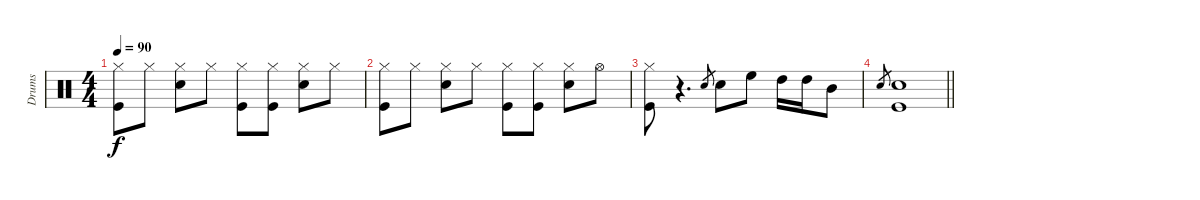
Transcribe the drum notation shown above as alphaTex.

\track ("Drums" "Drums") {instrument percussion}
\staff {score}
\articulation defaults
\ts (4 4)
\tempo 90
\clef neutral
\ks c
("Kick (hit)" "Hi-Hat (closed)").8{dy f} "Hi-Hat (closed)".8 ("Snare (hit) 2" "Hi-Hat (closed)").8 "Hi-Hat (closed)".8 ("Kick (hit)" "Hi-Hat (closed)").8 ("Kick (hit)" "Hi-Hat (closed)").8 ("Snare (hit) 2" "Hi-Hat (closed)").8 "Hi-Hat (closed)".8 |
("Kick (hit)" "Hi-Hat (closed)").8 "Hi-Hat (closed)".8 ("Snare (hit) 2" "Hi-Hat (closed)").8 "Hi-Hat (closed)".8 ("Kick (hit)" "Hi-Hat (closed)").8 ("Kick (hit)" "Hi-Hat (closed)").8 ("Snare (hit) 2" "Hi-Hat (closed)").8 "Hi-Hat (open)".8 |
("Hi-Hat (closed)" "Kick (hit)").8 r.4{d} "Snare (hit) 2".8{gr} "Snare (hit) 2".8 "High Floor Tom (hit)".8 "High Tom (hit)".16 "High Tom (hit)".16 "Mid Tom (hit)".8 |
\barLineRight lightlight "Snare (hit) 2".8{gr}
("Kick (hit)" "Snare (hit) 2").1
